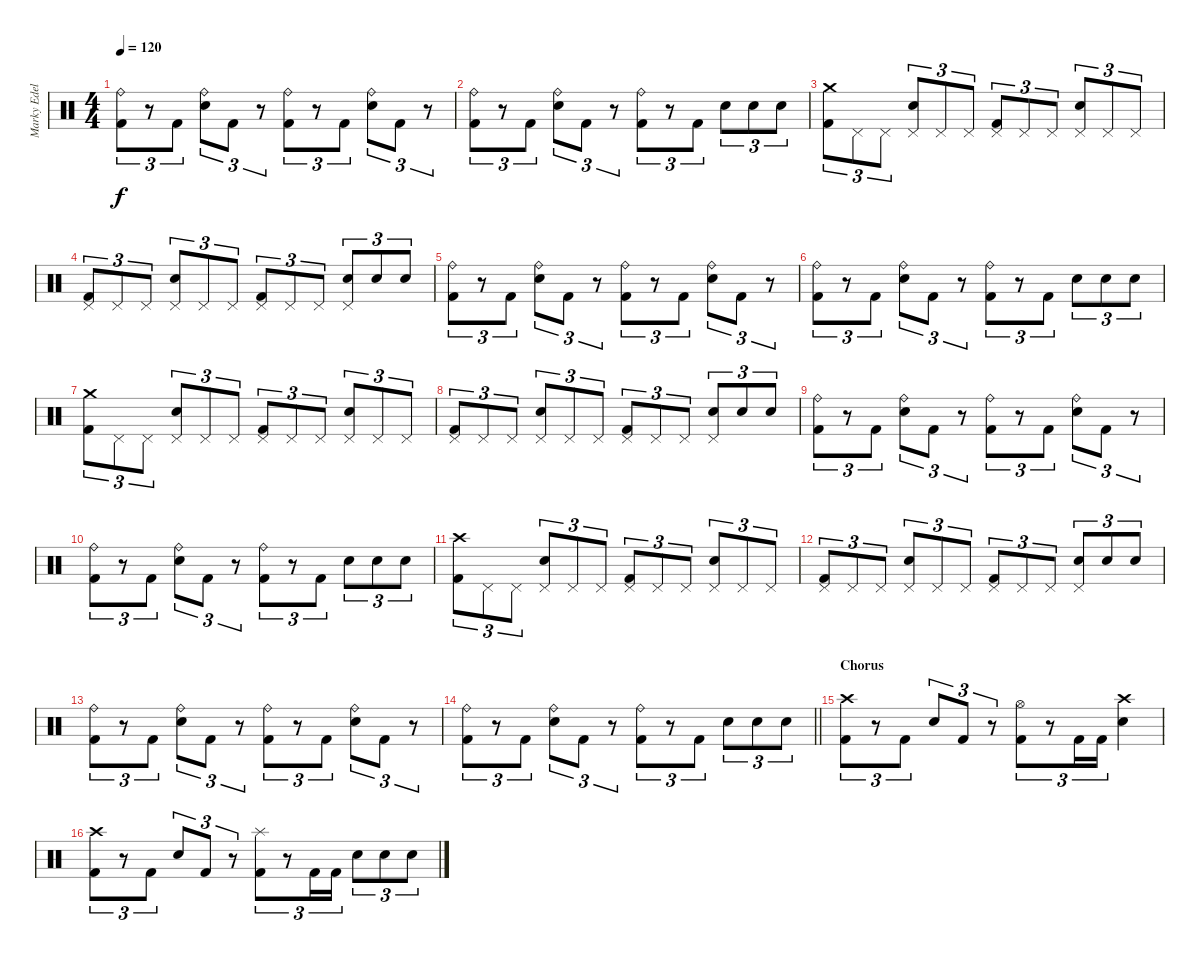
\track ("Marky Edelmann" "Marky Edel") {instrument percussion}
\staff {score}
\articulation defaults
\ts (4 4)
\tempo 120
\clef neutral
\ks c
("Ride (bell)" "Kick (hit) 2").8{tu (3 2) dy f} r.8{tu (3 2)} "Kick (hit) 2".8{tu (3 2)} ("Ride (bell)" "Snare (hit) 2").8{tu (3 2)} "Kick (hit) 2".8{tu (3 2)} r.8{tu (3 2)} ("Ride (bell)" "Kick (hit) 2").8{tu (3 2)} r.8{tu (3 2)} "Kick (hit) 2".8{tu (3 2)} ("Ride (bell)" "Snare (hit) 2").8{tu (3 2)} "Kick (hit) 2".8{tu (3 2)} r.8{tu (3 2)} |
("Ride (bell)" "Kick (hit) 2").8{tu (3 2)} r.8{tu (3 2)} "Kick (hit) 2".8{tu (3 2)} ("Ride (bell)" "Snare (hit) 2").8{tu (3 2)} "Kick (hit) 2".8{tu (3 2)} r.8{tu (3 2)} ("Ride (bell)" "Kick (hit) 2").8{tu (3 2)} r.8{tu (3 2)} "Kick (hit) 2".8{tu (3 2)} "Snare (hit) 2".8{tu (3 2)} "Snare (hit) 2".8{tu (3 2)} "Snare (hit) 2".8{tu (3 2)} |
("Crash medium (hit)" "Kick (hit) 2").8{tu (3 2)} "Pedal Hi-Hat (hit)".8{tu (3 2)} "Pedal Hi-Hat (hit)".8{tu (3 2)} ("Pedal Hi-Hat (hit)" "Snare (hit) 2").8{tu (3 2)} "Pedal Hi-Hat (hit)".8{tu (3 2)} "Pedal Hi-Hat (hit)".8{tu (3 2)} ("Pedal Hi-Hat (hit)" "Kick (hit) 2").8{tu (3 2)} "Pedal Hi-Hat (hit)".8{tu (3 2)} "Pedal Hi-Hat (hit)".8{tu (3 2)} ("Pedal Hi-Hat (hit)" "Snare (hit) 2").8{tu (3 2)} "Pedal Hi-Hat (hit)".8{tu (3 2)} "Pedal Hi-Hat (hit)".8{tu (3 2)} |
("Pedal Hi-Hat (hit)" "Kick (hit) 2").8{tu (3 2)} "Pedal Hi-Hat (hit)".8{tu (3 2)} "Pedal Hi-Hat (hit)".8{tu (3 2)} ("Pedal Hi-Hat (hit)" "Snare (hit) 2").8{tu (3 2)} "Pedal Hi-Hat (hit)".8{tu (3 2)} "Pedal Hi-Hat (hit)".8{tu (3 2)} ("Pedal Hi-Hat (hit)" "Kick (hit) 2").8{tu (3 2)} "Pedal Hi-Hat (hit)".8{tu (3 2)} "Pedal Hi-Hat (hit)".8{tu (3 2)} ("Pedal Hi-Hat (hit)" "Snare (hit) 2").8{tu (3 2)} "Snare (hit) 2".8{tu (3 2)} "Snare (hit) 2".8{tu (3 2)} |
("Ride (bell)" "Kick (hit) 2").8{tu (3 2)} r.8{tu (3 2)} "Kick (hit) 2".8{tu (3 2)} ("Ride (bell)" "Snare (hit) 2").8{tu (3 2)} "Kick (hit) 2".8{tu (3 2)} r.8{tu (3 2)} ("Ride (bell)" "Kick (hit) 2").8{tu (3 2)} r.8{tu (3 2)} "Kick (hit) 2".8{tu (3 2)} ("Ride (bell)" "Snare (hit) 2").8{tu (3 2)} "Kick (hit) 2".8{tu (3 2)} r.8{tu (3 2)} |
("Ride (bell)" "Kick (hit) 2").8{tu (3 2)} r.8{tu (3 2)} "Kick (hit) 2".8{tu (3 2)} ("Ride (bell)" "Snare (hit) 2").8{tu (3 2)} "Kick (hit) 2".8{tu (3 2)} r.8{tu (3 2)} ("Ride (bell)" "Kick (hit) 2").8{tu (3 2)} r.8{tu (3 2)} "Kick (hit) 2".8{tu (3 2)} "Snare (hit) 2".8{tu (3 2)} "Snare (hit) 2".8{tu (3 2)} "Snare (hit) 2".8{tu (3 2)} |
("Crash medium (hit)" "Kick (hit) 2").8{tu (3 2)} "Pedal Hi-Hat (hit)".8{tu (3 2)} "Pedal Hi-Hat (hit)".8{tu (3 2)} ("Pedal Hi-Hat (hit)" "Snare (hit) 2").8{tu (3 2)} "Pedal Hi-Hat (hit)".8{tu (3 2)} "Pedal Hi-Hat (hit)".8{tu (3 2)} ("Pedal Hi-Hat (hit)" "Kick (hit) 2").8{tu (3 2)} "Pedal Hi-Hat (hit)".8{tu (3 2)} "Pedal Hi-Hat (hit)".8{tu (3 2)} ("Pedal Hi-Hat (hit)" "Snare (hit) 2").8{tu (3 2)} "Pedal Hi-Hat (hit)".8{tu (3 2)} "Pedal Hi-Hat (hit)".8{tu (3 2)} |
("Pedal Hi-Hat (hit)" "Kick (hit) 2").8{tu (3 2)} "Pedal Hi-Hat (hit)".8{tu (3 2)} "Pedal Hi-Hat (hit)".8{tu (3 2)} ("Pedal Hi-Hat (hit)" "Snare (hit) 2").8{tu (3 2)} "Pedal Hi-Hat (hit)".8{tu (3 2)} "Pedal Hi-Hat (hit)".8{tu (3 2)} ("Pedal Hi-Hat (hit)" "Kick (hit) 2").8{tu (3 2)} "Pedal Hi-Hat (hit)".8{tu (3 2)} "Pedal Hi-Hat (hit)".8{tu (3 2)} ("Pedal Hi-Hat (hit)" "Snare (hit) 2").8{tu (3 2)} "Snare (hit) 2".8{tu (3 2)} "Snare (hit) 2".8{tu (3 2)} |
("Ride (bell)" "Kick (hit) 2").8{tu (3 2)} r.8{tu (3 2)} "Kick (hit) 2".8{tu (3 2)} ("Ride (bell)" "Snare (hit) 2").8{tu (3 2)} "Kick (hit) 2".8{tu (3 2)} r.8{tu (3 2)} ("Ride (bell)" "Kick (hit) 2").8{tu (3 2)} r.8{tu (3 2)} "Kick (hit) 2".8{tu (3 2)} ("Ride (bell)" "Snare (hit) 2").8{tu (3 2)} "Kick (hit) 2".8{tu (3 2)} r.8{tu (3 2)} |
("Ride (bell)" "Kick (hit) 2").8{tu (3 2)} r.8{tu (3 2)} "Kick (hit) 2".8{tu (3 2)} ("Ride (bell)" "Snare (hit) 2").8{tu (3 2)} "Kick (hit) 2".8{tu (3 2)} r.8{tu (3 2)} ("Ride (bell)" "Kick (hit) 2").8{tu (3 2)} r.8{tu (3 2)} "Kick (hit) 2".8{tu (3 2)} "Snare (hit) 2".8{tu (3 2)} "Snare (hit) 2".8{tu (3 2)} "Snare (hit) 2".8{tu (3 2)} |
("Crash high (hit)" "Kick (hit) 2").8{tu (3 2)} "Pedal Hi-Hat (hit)".8{tu (3 2)} "Pedal Hi-Hat (hit)".8{tu (3 2)} ("Pedal Hi-Hat (hit)" "Snare (hit) 2").8{tu (3 2)} "Pedal Hi-Hat (hit)".8{tu (3 2)} "Pedal Hi-Hat (hit)".8{tu (3 2)} ("Pedal Hi-Hat (hit)" "Kick (hit) 2").8{tu (3 2)} "Pedal Hi-Hat (hit)".8{tu (3 2)} "Pedal Hi-Hat (hit)".8{tu (3 2)} ("Pedal Hi-Hat (hit)" "Snare (hit) 2").8{tu (3 2)} "Pedal Hi-Hat (hit)".8{tu (3 2)} "Pedal Hi-Hat (hit)".8{tu (3 2)} |
("Pedal Hi-Hat (hit)" "Kick (hit) 2").8{tu (3 2)} "Pedal Hi-Hat (hit)".8{tu (3 2)} "Pedal Hi-Hat (hit)".8{tu (3 2)} ("Pedal Hi-Hat (hit)" "Snare (hit) 2").8{tu (3 2)} "Pedal Hi-Hat (hit)".8{tu (3 2)} "Pedal Hi-Hat (hit)".8{tu (3 2)} ("Pedal Hi-Hat (hit)" "Kick (hit) 2").8{tu (3 2)} "Pedal Hi-Hat (hit)".8{tu (3 2)} "Pedal Hi-Hat (hit)".8{tu (3 2)} ("Pedal Hi-Hat (hit)" "Snare (hit) 2").8{tu (3 2)} "Snare (hit) 2".8{tu (3 2)} "Snare (hit) 2".8{tu (3 2)} |
("Ride (bell)" "Kick (hit) 2").8{tu (3 2)} r.8{tu (3 2)} "Kick (hit) 2".8{tu (3 2)} ("Ride (bell)" "Snare (hit) 2").8{tu (3 2)} "Kick (hit) 2".8{tu (3 2)} r.8{tu (3 2)} ("Ride (bell)" "Kick (hit) 2").8{tu (3 2)} r.8{tu (3 2)} "Kick (hit) 2".8{tu (3 2)} ("Ride (bell)" "Snare (hit) 2").8{tu (3 2)} "Kick (hit) 2".8{tu (3 2)} r.8{tu (3 2)} |
\barLineRight lightlight
("Ride (bell)" "Kick (hit) 2").8{tu (3 2)} r.8{tu (3 2)} "Kick (hit) 2".8{tu (3 2)} ("Ride (bell)" "Snare (hit) 2").8{tu (3 2)} "Kick (hit) 2".8{tu (3 2)} r.8{tu (3 2)} ("Ride (bell)" "Kick (hit) 2").8{tu (3 2)} r.8{tu (3 2)} "Kick (hit) 2".8{tu (3 2)} "Snare (hit) 2".8{tu (3 2)} "Snare (hit) 2".8{tu (3 2)} "Snare (hit) 2".8{tu (3 2)} |
\section ("" "Chorus")
("Crash high (hit)" "Kick (hit) 2").8{tu (3 2)} r.8{tu (3 2)} "Kick (hit) 2".8{tu (3 2)} "Snare (hit) 2".8{tu (3 2)} "Kick (hit) 2".8{tu (3 2)} r.8{tu (3 2)} ("Hi-Hat (open)" "Kick (hit) 2").8{tu (3 2)} r.8{tu (3 2)} "Kick (hit) 2".16{tu (3 2)} "Kick (hit) 2".16{tu (3 2)} ("Crash high (hit)" "Snare (hit) 2").4 |
("Crash high (hit)" "Kick (hit) 2").8{tu (3 2)} r.8{tu (3 2)} "Kick (hit) 2".8{tu (3 2)} "Snare (hit) 2".8{tu (3 2)} "Kick (hit) 2".8{tu (3 2)} r.8{tu (3 2)} ("Splash (hit)" "Kick (hit) 2").8{tu (3 2)} r.8{tu (3 2)} "Kick (hit) 2".16{tu (3 2)} "Kick (hit) 2".16{tu (3 2)} "Snare (hit) 2".8{tu (3 2)} "Snare (hit) 2".8{tu (3 2)} "Snare (hit) 2".8{tu (3 2)}
